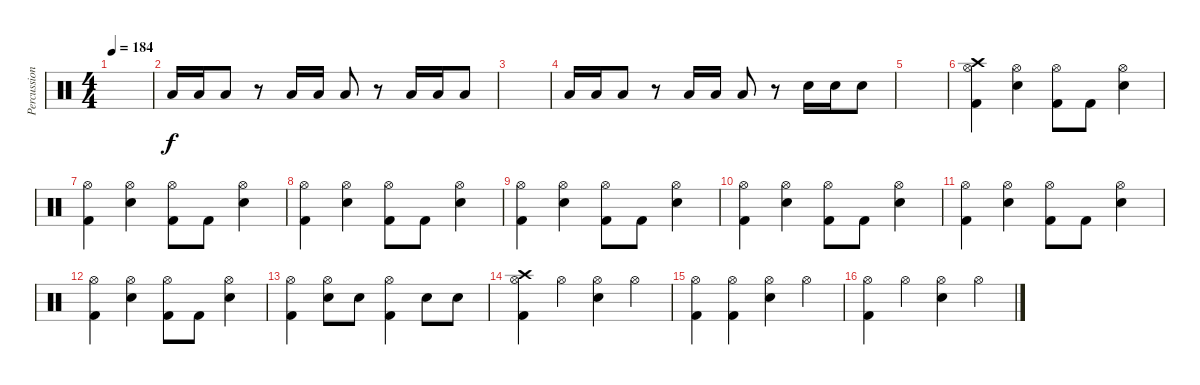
\track ("Percussion" "Percussion") {instrument percussion}
\staff {score}
\articulation defaults
\ts (4 4)
\tempo 184
\clef neutral
\ks c
|
"Low Floor Tom (hit)".16 "Low Floor Tom (hit)".16 "Low Floor Tom (hit)".8 r.8 "Low Floor Tom (hit)".16 "Low Floor Tom (hit)".16 "Low Floor Tom (hit)".8 r.8 "Low Floor Tom (hit)".16 "Low Floor Tom (hit)".16 "Low Floor Tom (hit)".8 |
|
"Low Floor Tom (hit)".16 "Low Floor Tom (hit)".16 "Low Floor Tom (hit)".8 r.8 "Low Floor Tom (hit)".16 "Low Floor Tom (hit)".16 "Low Floor Tom (hit)".8 r.8 "Snare (hit) 2".16 "Snare (hit) 2".16 "Snare (hit) 2".8 |
|
("Crash high (hit)" "Hi-Hat (open)" "Kick (hit) 2").4 ("Hi-Hat (open)" "Snare (hit) 2").4 ("Hi-Hat (open)" "Kick (hit) 2").8 "Kick (hit) 2".8 ("Hi-Hat (open)" "Snare (hit) 2").4 |
("Hi-Hat (open)" "Kick (hit) 2").4 ("Hi-Hat (open)" "Snare (hit) 2").4 ("Hi-Hat (open)" "Kick (hit) 2").8 "Kick (hit) 2".8 ("Hi-Hat (open)" "Snare (hit) 2").4 |
("Hi-Hat (open)" "Kick (hit) 2").4 ("Hi-Hat (open)" "Snare (hit) 2").4 ("Hi-Hat (open)" "Kick (hit) 2").8 "Kick (hit) 2".8 ("Hi-Hat (open)" "Snare (hit) 2").4 |
("Hi-Hat (open)" "Kick (hit) 2").4 ("Hi-Hat (open)" "Snare (hit) 2").4 ("Hi-Hat (open)" "Kick (hit) 2").8 "Kick (hit) 2".8 ("Hi-Hat (open)" "Snare (hit) 2").4 |
("Hi-Hat (open)" "Kick (hit) 2").4 ("Hi-Hat (open)" "Snare (hit) 2").4 ("Hi-Hat (open)" "Kick (hit) 2").8 "Kick (hit) 2".8 ("Hi-Hat (open)" "Snare (hit) 2").4 |
("Hi-Hat (open)" "Kick (hit) 2").4 ("Hi-Hat (open)" "Snare (hit) 2").4 ("Hi-Hat (open)" "Kick (hit) 2").8 "Kick (hit) 2".8 ("Hi-Hat (open)" "Snare (hit) 2").4 |
("Hi-Hat (open)" "Kick (hit) 2").4 ("Hi-Hat (open)" "Snare (hit) 2").4 ("Hi-Hat (open)" "Kick (hit) 2").8 "Kick (hit) 2".8 ("Hi-Hat (open)" "Snare (hit) 2").4 |
("Hi-Hat (open)" "Kick (hit) 2").4 ("Hi-Hat (open)" "Snare (hit) 2").8 "Snare (hit) 2".8 ("Hi-Hat (open)" "Kick (hit) 2").4 "Snare (hit) 2".8 "Snare (hit) 2".8 |
("Crash high (hit)" "Hi-Hat (open)" "Kick (hit) 2").4 "Hi-Hat (open)".4 ("Hi-Hat (open)" "Snare (hit) 2").4 "Hi-Hat (open)".4 |
("Hi-Hat (open)" "Kick (hit) 2").4 ("Hi-Hat (open)" "Kick (hit) 2").4 ("Hi-Hat (open)" "Snare (hit) 2").4 "Hi-Hat (open)".4 |
("Hi-Hat (open)" "Kick (hit) 2").4 "Hi-Hat (open)".4 ("Hi-Hat (open)" "Snare (hit) 2").4 "Hi-Hat (open)".4
